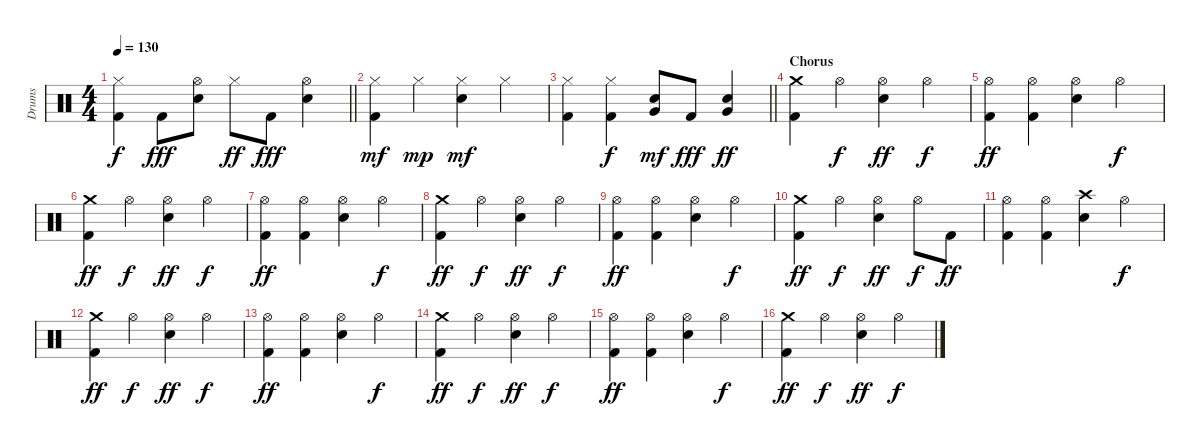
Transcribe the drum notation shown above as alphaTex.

\track ("Drums" "Drums") {instrument percussion}
\staff {score}
\articulation defaults
\ts (4 4)
\tempo 130
\clef neutral
\barLineRight lightlight
\ks c
("Hi-Hat (closed)" "Kick (hit) 2").4{dy f} "Kick (hit) 2".8{dy fff} ("Hi-Hat (open)" "Snare (hit) 2").8 "Hi-Hat (closed)".8{dy ff} "Kick (hit) 2".8{dy fff} ("Hi-Hat (open)" "Snare (hit) 2").4 |
("Hi-Hat (closed)" "Kick (hit) 2").4{dy mf} "Hi-Hat (closed)".4{dy mp} ("Hi-Hat (closed)" "Snare (hit) 2").4{dy mf} "Hi-Hat (closed)".4 |
\barLineRight lightlight
("Hi-Hat (closed)" "Kick (hit) 2").4 ("Hi-Hat (closed)" "Kick (hit) 2").4{dy f} ("Snare (hit) 2" "Very Low Tom (hit)").8{dy mf} "Kick (hit) 2".8{dy fff} ("Snare (hit) 2" "Very Low Tom (hit)").4{dy ff} |
\section ("" "Chorus")
("Crash medium (hit)" "Kick (hit) 2").4 "Hi-Hat (open)".4{dy f} ("Hi-Hat (open)" "Snare (hit) 2").4{dy ff} "Hi-Hat (open)".4{dy f} |
("Hi-Hat (open)" "Kick (hit) 2").4{dy ff} ("Hi-Hat (open)" "Kick (hit) 2").4 ("Hi-Hat (open)" "Snare (hit) 2").4 "Hi-Hat (open)".4{dy f} |
("Crash medium (hit)" "Kick (hit) 2").4{dy ff} "Hi-Hat (open)".4{dy f} ("Hi-Hat (open)" "Snare (hit) 2").4{dy ff} "Hi-Hat (open)".4{dy f} |
("Hi-Hat (open)" "Kick (hit) 2").4{dy ff} ("Hi-Hat (open)" "Kick (hit) 2").4 ("Hi-Hat (open)" "Snare (hit) 2").4 "Hi-Hat (open)".4{dy f} |
("Crash medium (hit)" "Kick (hit) 2").4{dy ff} "Hi-Hat (open)".4{dy f} ("Hi-Hat (open)" "Snare (hit) 2").4{dy ff} "Hi-Hat (open)".4{dy f} |
("Hi-Hat (open)" "Kick (hit) 2").4{dy ff} ("Hi-Hat (open)" "Kick (hit) 2").4 ("Hi-Hat (open)" "Snare (hit) 2").4 "Hi-Hat (open)".4{dy f} |
("Crash medium (hit)" "Kick (hit) 2").4{dy ff} "Hi-Hat (open)".4{dy f} ("Hi-Hat (open)" "Snare (hit) 2").4{dy ff} "Hi-Hat (open)".8{dy f} "Kick (hit) 2".8{dy ff} |
("Hi-Hat (open)" "Kick (hit) 2").4 ("Hi-Hat (open)" "Kick (hit) 2").4 ("Crash high (hit)" "Snare (hit) 2").4 "Hi-Hat (open)".4{dy f} |
("Crash medium (hit)" "Kick (hit) 2").4{dy ff} "Hi-Hat (open)".4{dy f} ("Hi-Hat (open)" "Snare (hit) 2").4{dy ff} "Hi-Hat (open)".4{dy f} |
("Hi-Hat (open)" "Kick (hit) 2").4{dy ff} ("Hi-Hat (open)" "Kick (hit) 2").4 ("Hi-Hat (open)" "Snare (hit) 2").4 "Hi-Hat (open)".4{dy f} |
("Crash medium (hit)" "Kick (hit) 2").4{dy ff} "Hi-Hat (open)".4{dy f} ("Hi-Hat (open)" "Snare (hit) 2").4{dy ff} "Hi-Hat (open)".4{dy f} |
("Hi-Hat (open)" "Kick (hit) 2").4{dy ff} ("Hi-Hat (open)" "Kick (hit) 2").4 ("Hi-Hat (open)" "Snare (hit) 2").4 "Hi-Hat (open)".4{dy f} |
("Crash medium (hit)" "Kick (hit) 2").4{dy ff} "Hi-Hat (open)".4{dy f} ("Hi-Hat (open)" "Snare (hit) 2").4{dy ff} "Hi-Hat (open)".4{dy f}
